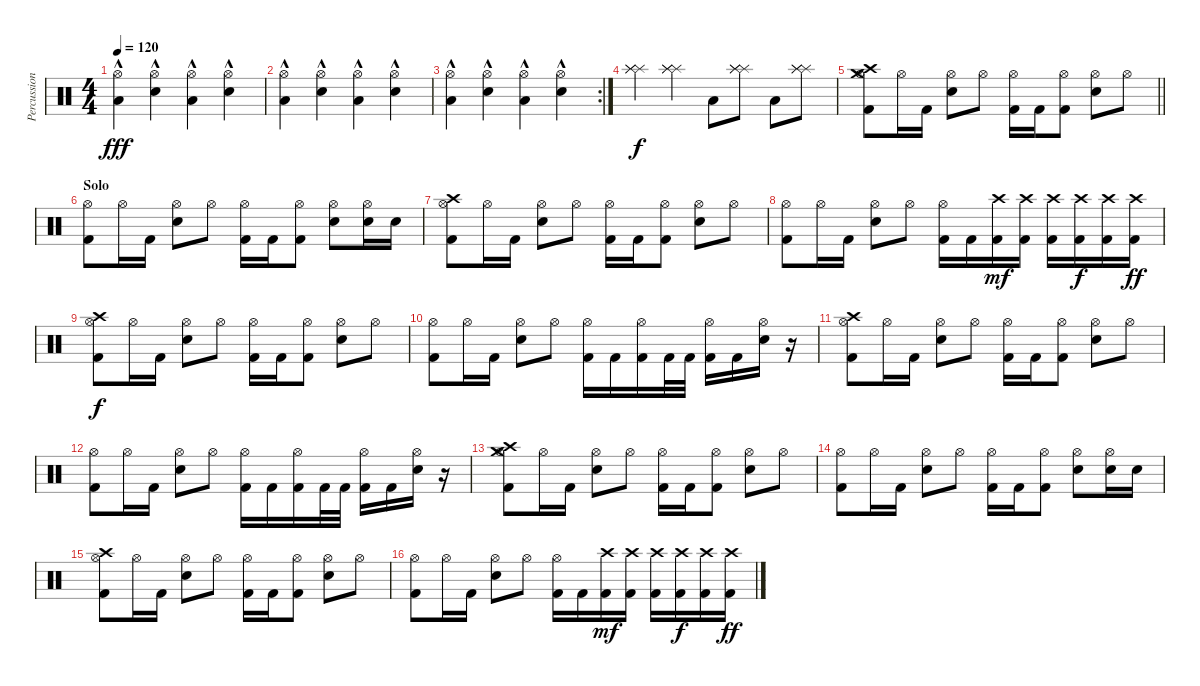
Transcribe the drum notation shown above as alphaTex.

\track ("Percussion" "Percussion") {instrument percussion}
\staff {score}
\articulation defaults
\ts (4 4)
\tempo 120
\clef neutral
\ks c
("Hi-Hat (open)" "Low Floor Tom (hit)"{hac}).4{dy fff} ("Hi-Hat (open)" "Electric Snare (hit)"{hac}).4 ("Hi-Hat (open)" "Low Floor Tom (hit)"{hac}).4 ("Hi-Hat (open)" "Electric Snare (hit)"{hac}).4 |
("Hi-Hat (open)" "Low Floor Tom (hit)"{hac}).4 ("Hi-Hat (open)" "Electric Snare (hit)"{hac}).4 ("Hi-Hat (open)" "Low Floor Tom (hit)"{hac}).4 ("Hi-Hat (open)" "Electric Snare (hit)"{hac}).4 |
\rc 2
("Hi-Hat (open)" "Low Floor Tom (hit)"{hac}).4 ("Hi-Hat (open)" "Electric Snare (hit)"{hac}).4 ("Hi-Hat (open)" "Low Floor Tom (hit)"{hac}).4 ("Hi-Hat (open)" "Electric Snare (hit)"{hac}).4 |
("Splash (hit)" "Splash (hit)" "Splash (hit)").4{dy f} ("Splash (hit)" "Splash (hit)" "Splash (hit)").4 "Low Floor Tom (hit)".8 ("Splash (hit)" "Splash (hit)" "Splash (hit)").8 "Low Floor Tom (hit)".8 ("Splash (hit)" "Splash (hit)" "Splash (hit)").8 |
\barLineRight lightlight
("Crash medium (hit)" "Crash high (hit)" "Hi-Hat (open)" "Kick (hit) 2").8 "Hi-Hat (open)".16 "Kick (hit) 2".16 ("Hi-Hat (open)" "Electric Snare (hit)").8 "Hi-Hat (open)".8 ("Hi-Hat (open)" "Kick (hit) 2").16 "Kick (hit) 2".16 ("Hi-Hat (open)" "Kick (hit) 2").8 ("Hi-Hat (open)" "Electric Snare (hit)").8 "Hi-Hat (open)".8 |
\section ("" "Solo")
("Hi-Hat (open)" "Kick (hit) 2").8 "Hi-Hat (open)".16 "Kick (hit) 2".16 ("Hi-Hat (open)" "Electric Snare (hit)").8 "Hi-Hat (open)".8 ("Hi-Hat (open)" "Kick (hit) 2").16 "Kick (hit) 2".16 ("Hi-Hat (open)" "Kick (hit) 2").8 ("Hi-Hat (open)" "Electric Snare (hit)").8 ("Hi-Hat (open)" "Electric Snare (hit)").16 "Electric Snare (hit)".16 |
("Crash high (hit)" "Hi-Hat (open)" "Kick (hit) 2").8 "Hi-Hat (open)".16 "Kick (hit) 2".16 ("Hi-Hat (open)" "Electric Snare (hit)").8 "Hi-Hat (open)".8 ("Hi-Hat (open)" "Kick (hit) 2").16 "Kick (hit) 2".16 ("Hi-Hat (open)" "Kick (hit) 2").8 ("Hi-Hat (open)" "Electric Snare (hit)").8 "Hi-Hat (open)".8 |
("Hi-Hat (open)" "Kick (hit) 2").8 "Hi-Hat (open)".16 "Kick (hit) 2".16 ("Hi-Hat (open)" "Electric Snare (hit)").8 "Hi-Hat (open)".8 ("Hi-Hat (open)" "Kick (hit) 2").16 "Kick (hit) 2".16 ("Crash high (hit)" "Kick (hit) 2").16{dy mf} ("Crash high (hit)" "Kick (hit) 2").16 ("Crash high (hit)" "Kick (hit) 2").16 ("Crash high (hit)" "Kick (hit) 2").16{dy f} ("Crash high (hit)" "Kick (hit) 2").16 ("Crash high (hit)" "Kick (hit) 2").16{dy ff} |
("Crash high (hit)" "Hi-Hat (open)" "Kick (hit) 2").8{dy f} "Hi-Hat (open)".16 "Kick (hit) 2".16 ("Hi-Hat (open)" "Electric Snare (hit)").8 "Hi-Hat (open)".8 ("Hi-Hat (open)" "Kick (hit) 2").16 "Kick (hit) 2".16 ("Hi-Hat (open)" "Kick (hit) 2").8 ("Hi-Hat (open)" "Electric Snare (hit)").8 "Hi-Hat (open)".8 |
("Hi-Hat (open)" "Kick (hit) 2").8 "Hi-Hat (open)".16 "Kick (hit) 2".16 ("Hi-Hat (open)" "Electric Snare (hit)").8 "Hi-Hat (open)".8 ("Hi-Hat (open)" "Kick (hit) 2").16 "Kick (hit) 2".16 ("Hi-Hat (open)" "Kick (hit) 2").16 "Kick (hit) 2".32 "Kick (hit) 2".32 ("Hi-Hat (open)" "Kick (hit) 2").16 "Kick (hit) 2".16 ("Hi-Hat (open)" "Electric Snare (hit)").16 r.16 |
("Crash high (hit)" "Hi-Hat (open)" "Kick (hit) 2").8 "Hi-Hat (open)".16 "Kick (hit) 2".16 ("Hi-Hat (open)" "Electric Snare (hit)").8 "Hi-Hat (open)".8 ("Hi-Hat (open)" "Kick (hit) 2").16 "Kick (hit) 2".16 ("Hi-Hat (open)" "Kick (hit) 2").8 ("Hi-Hat (open)" "Electric Snare (hit)").8 "Hi-Hat (open)".8 |
("Hi-Hat (open)" "Kick (hit) 2").8 "Hi-Hat (open)".16 "Kick (hit) 2".16 ("Hi-Hat (open)" "Electric Snare (hit)").8 "Hi-Hat (open)".8 ("Hi-Hat (open)" "Kick (hit) 2").16 "Kick (hit) 2".16 ("Hi-Hat (open)" "Kick (hit) 2").16 "Kick (hit) 2".32 "Kick (hit) 2".32 ("Hi-Hat (open)" "Kick (hit) 2").16 "Kick (hit) 2".16 ("Hi-Hat (open)" "Electric Snare (hit)").16 r.16 |
("Crash medium (hit)" "Crash high (hit)" "Hi-Hat (open)" "Kick (hit) 2").8 "Hi-Hat (open)".16 "Kick (hit) 2".16 ("Hi-Hat (open)" "Electric Snare (hit)").8 "Hi-Hat (open)".8 ("Hi-Hat (open)" "Kick (hit) 2").16 "Kick (hit) 2".16 ("Hi-Hat (open)" "Kick (hit) 2").8 ("Hi-Hat (open)" "Electric Snare (hit)").8 "Hi-Hat (open)".8 |
("Hi-Hat (open)" "Kick (hit) 2").8 "Hi-Hat (open)".16 "Kick (hit) 2".16 ("Hi-Hat (open)" "Electric Snare (hit)").8 "Hi-Hat (open)".8 ("Hi-Hat (open)" "Kick (hit) 2").16 "Kick (hit) 2".16 ("Hi-Hat (open)" "Kick (hit) 2").8 ("Hi-Hat (open)" "Electric Snare (hit)").8 ("Hi-Hat (open)" "Electric Snare (hit)").16 "Electric Snare (hit)".16 |
("Crash high (hit)" "Hi-Hat (open)" "Kick (hit) 2").8 "Hi-Hat (open)".16 "Kick (hit) 2".16 ("Hi-Hat (open)" "Electric Snare (hit)").8 "Hi-Hat (open)".8 ("Hi-Hat (open)" "Kick (hit) 2").16 "Kick (hit) 2".16 ("Hi-Hat (open)" "Kick (hit) 2").8 ("Hi-Hat (open)" "Electric Snare (hit)").8 "Hi-Hat (open)".8 |
("Hi-Hat (open)" "Kick (hit) 2").8 "Hi-Hat (open)".16 "Kick (hit) 2".16 ("Hi-Hat (open)" "Electric Snare (hit)").8 "Hi-Hat (open)".8 ("Hi-Hat (open)" "Kick (hit) 2").16 "Kick (hit) 2".16 ("Crash high (hit)" "Kick (hit) 2").16{dy mf} ("Crash high (hit)" "Kick (hit) 2").16 ("Crash high (hit)" "Kick (hit) 2").16 ("Crash high (hit)" "Kick (hit) 2").16{dy f} ("Crash high (hit)" "Kick (hit) 2").16 ("Crash high (hit)" "Kick (hit) 2").16{dy ff}
